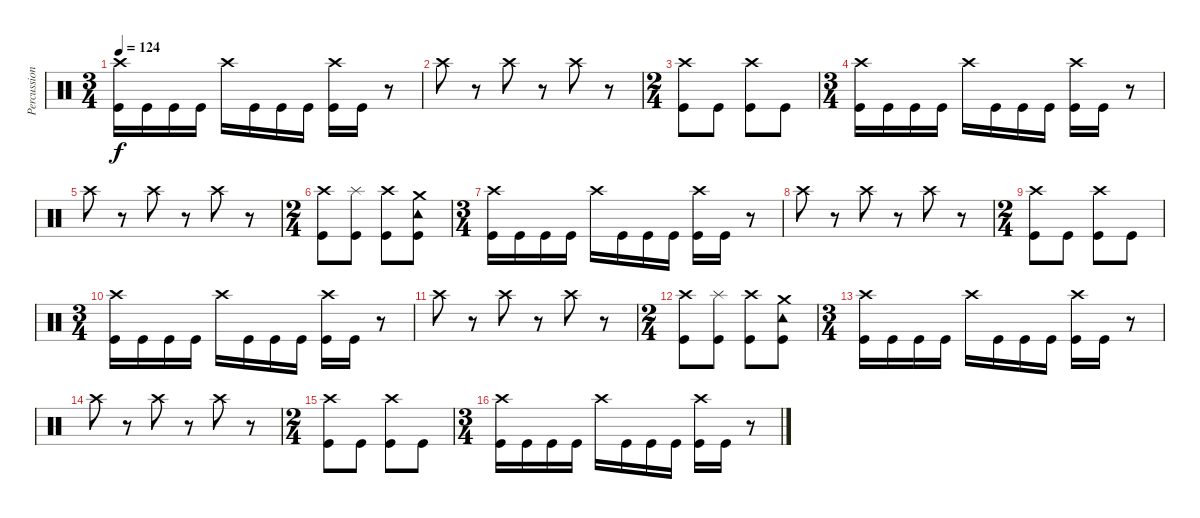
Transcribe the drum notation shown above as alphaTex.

\track ("Percussion" "Percussion") {instrument percussion}
\staff {score}
\articulation defaults
\ts (3 4)
\tempo 124
\clef neutral
\ks c
("Crash high (hit)" "Kick (hit)").16{dy f} "Kick (hit)".16 "Kick (hit)".16 "Kick (hit)".16 "Crash high (hit)".16 "Kick (hit)".16 "Kick (hit)".16 "Kick (hit)".16 ("Crash high (hit)" "Kick (hit)").16 "Kick (hit)".16 r.8 |
"Crash high (hit)".8 r.8 "Crash high (hit)".8 r.8 "Crash high (hit)".8 r.8 |
\ts (2 4)
("Crash high (hit)" "Kick (hit)").8 "Kick (hit)".8 ("Crash high (hit)" "Kick (hit)").8 "Kick (hit)".8 |
\ts (3 4)
("Crash high (hit)" "Kick (hit)").16 "Kick (hit)".16 "Kick (hit)".16 "Kick (hit)".16 "Crash high (hit)".16 "Kick (hit)".16 "Kick (hit)".16 "Kick (hit)".16 ("Crash high (hit)" "Kick (hit)").16 "Kick (hit)".16 r.8 |
"Crash high (hit)".8 r.8 "Crash high (hit)".8 r.8 "Crash high (hit)".8 r.8 |
\ts (2 4)
("Crash high (hit)" "Kick (hit)").8 ("Splash (hit)" "Kick (hit)").8 ("Crash high (hit)" "Kick (hit)").8 ("Tambourine (hit)" "Crash medium (hit)" "Kick (hit)").8 |
\ts (3 4)
("Crash high (hit)" "Kick (hit)").16 "Kick (hit)".16 "Kick (hit)".16 "Kick (hit)".16 "Crash high (hit)".16 "Kick (hit)".16 "Kick (hit)".16 "Kick (hit)".16 ("Crash high (hit)" "Kick (hit)").16 "Kick (hit)".16 r.8 |
"Crash high (hit)".8 r.8 "Crash high (hit)".8 r.8 "Crash high (hit)".8 r.8 |
\ts (2 4)
("Crash high (hit)" "Kick (hit)").8 "Kick (hit)".8 ("Crash high (hit)" "Kick (hit)").8 "Kick (hit)".8 |
\ts (3 4)
("Crash high (hit)" "Kick (hit)").16 "Kick (hit)".16 "Kick (hit)".16 "Kick (hit)".16 "Crash high (hit)".16 "Kick (hit)".16 "Kick (hit)".16 "Kick (hit)".16 ("Crash high (hit)" "Kick (hit)").16 "Kick (hit)".16 r.8 |
"Crash high (hit)".8 r.8 "Crash high (hit)".8 r.8 "Crash high (hit)".8 r.8 |
\ts (2 4)
("Crash high (hit)" "Kick (hit)").8 ("Splash (hit)" "Kick (hit)").8 ("Crash high (hit)" "Kick (hit)").8 ("Tambourine (hit)" "Crash medium (hit)" "Kick (hit)").8 |
\ts (3 4)
("Crash high (hit)" "Kick (hit)").16 "Kick (hit)".16 "Kick (hit)".16 "Kick (hit)".16 "Crash high (hit)".16 "Kick (hit)".16 "Kick (hit)".16 "Kick (hit)".16 ("Crash high (hit)" "Kick (hit)").16 "Kick (hit)".16 r.8 |
"Crash high (hit)".8 r.8 "Crash high (hit)".8 r.8 "Crash high (hit)".8 r.8 |
\ts (2 4)
("Crash high (hit)" "Kick (hit)").8 "Kick (hit)".8 ("Crash high (hit)" "Kick (hit)").8 "Kick (hit)".8 |
\ts (3 4)
("Crash high (hit)" "Kick (hit)").16 "Kick (hit)".16 "Kick (hit)".16 "Kick (hit)".16 "Crash high (hit)".16 "Kick (hit)".16 "Kick (hit)".16 "Kick (hit)".16 ("Crash high (hit)" "Kick (hit)").16 "Kick (hit)".16 r.8
